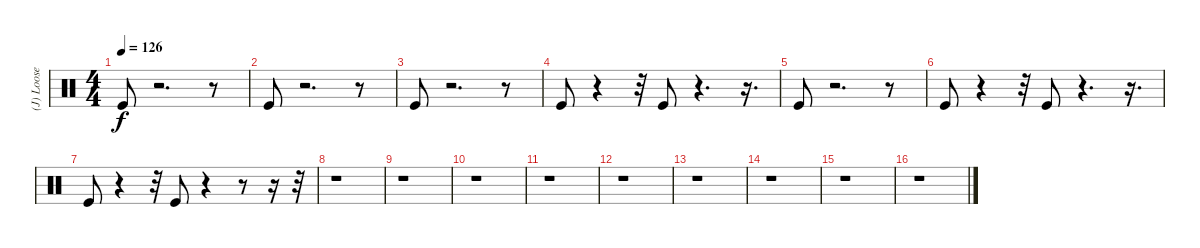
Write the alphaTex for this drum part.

\track ("(J) Loose Kick" "(J) Loose ") {instrument percussion}
\staff {score}
\articulation defaults
\ts (4 4)
\tempo 126
\clef neutral
\ks c "Kick (hit)".8{dy f}
r.2{d} r.8 |
"Kick (hit)".8 r.2{d} r.8 |
"Kick (hit)".8 r.2{d} r.8 |
"Kick (hit)".8 r.4 r.32 "Kick (hit)".8 r.4{d} r.16{d} |
"Kick (hit)".8 r.2{d} r.8 |
"Kick (hit)".8 r.4 r.32 "Kick (hit)".8 r.4{d} r.16{d} |
"Kick (hit)".8 r.4 r.32 "Kick (hit)".8 r.4 r.8 r.16 r.32 |
r.1 |
r.1 |
r.1 |
r.1 |
r.1 |
r.1 |
r.1 |
r.1 |
r.1
